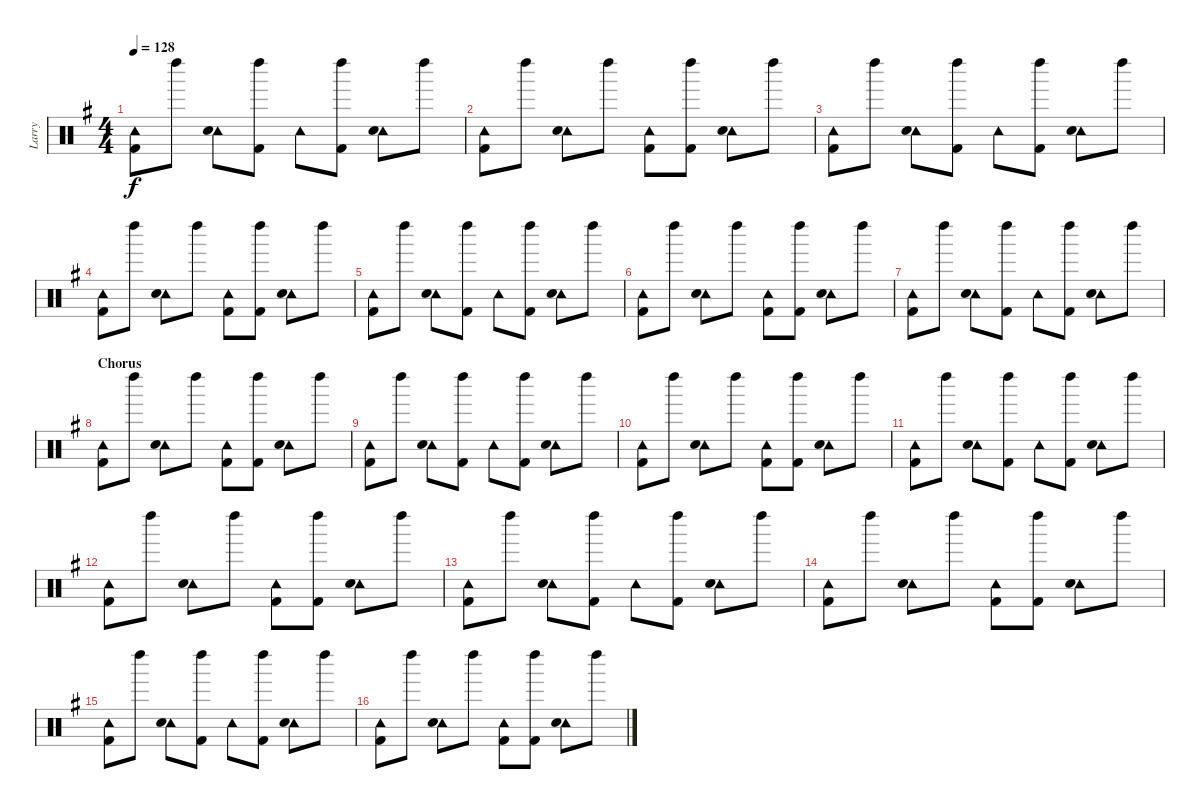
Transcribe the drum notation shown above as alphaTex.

\track ("Larry" "Larry") {instrument percussion}
\staff {score}
\articulation defaults
\ts (4 4)
\tempo 128
\clef neutral
\ks g
("Tambourine (hit)" "Kick (hit) 2").8{dy f} "Left Maraca (hit)".8 ("Tambourine (hit)" "Snare (hit) 2").8 ("Left Maraca (hit)" "Kick (hit) 2").8 "Tambourine (hit)".8 ("Left Maraca (hit)" "Kick (hit) 2").8 ("Tambourine (hit)" "Snare (hit) 2").8 "Left Maraca (hit)".8 |
("Tambourine (hit)" "Kick (hit) 2").8 "Left Maraca (hit)".8 ("Tambourine (hit)" "Snare (hit) 2").8 "Left Maraca (hit)".8 ("Tambourine (hit)" "Kick (hit) 2").8 ("Left Maraca (hit)" "Kick (hit) 2").8 ("Tambourine (hit)" "Snare (hit) 2").8 "Left Maraca (hit)".8 |
("Tambourine (hit)" "Kick (hit) 2").8 "Left Maraca (hit)".8 ("Tambourine (hit)" "Snare (hit) 2").8 ("Left Maraca (hit)" "Kick (hit) 2").8 "Tambourine (hit)".8 ("Left Maraca (hit)" "Kick (hit) 2").8 ("Tambourine (hit)" "Snare (hit) 2").8 "Left Maraca (hit)".8 |
("Tambourine (hit)" "Kick (hit) 2").8 "Left Maraca (hit)".8 ("Tambourine (hit)" "Snare (hit) 2").8 "Left Maraca (hit)".8 ("Tambourine (hit)" "Kick (hit) 2").8 ("Left Maraca (hit)" "Kick (hit) 2").8 ("Tambourine (hit)" "Snare (hit) 2").8 "Left Maraca (hit)".8 |
("Tambourine (hit)" "Kick (hit) 2").8 "Left Maraca (hit)".8 ("Tambourine (hit)" "Snare (hit) 2").8 ("Left Maraca (hit)" "Kick (hit) 2").8 "Tambourine (hit)".8 ("Left Maraca (hit)" "Kick (hit) 2").8 ("Tambourine (hit)" "Snare (hit) 2").8 "Left Maraca (hit)".8 |
("Tambourine (hit)" "Kick (hit) 2").8 "Left Maraca (hit)".8 ("Tambourine (hit)" "Snare (hit) 2").8 "Left Maraca (hit)".8 ("Tambourine (hit)" "Kick (hit) 2").8 ("Left Maraca (hit)" "Kick (hit) 2").8 ("Tambourine (hit)" "Snare (hit) 2").8 "Left Maraca (hit)".8 |
("Tambourine (hit)" "Kick (hit) 2").8 "Left Maraca (hit)".8 ("Tambourine (hit)" "Snare (hit) 2").8 ("Left Maraca (hit)" "Kick (hit) 2").8 "Tambourine (hit)".8 ("Left Maraca (hit)" "Kick (hit) 2").8 ("Tambourine (hit)" "Snare (hit) 2").8 "Left Maraca (hit)".8 |
\section ("" "Chorus")
("Tambourine (hit)" "Kick (hit) 2").8 "Left Maraca (hit)".8 ("Tambourine (hit)" "Snare (hit) 2").8 "Left Maraca (hit)".8 ("Tambourine (hit)" "Kick (hit) 2").8 ("Left Maraca (hit)" "Kick (hit) 2").8 ("Tambourine (hit)" "Snare (hit) 2").8 "Left Maraca (hit)".8 |
("Tambourine (hit)" "Kick (hit) 2").8 "Left Maraca (hit)".8 ("Tambourine (hit)" "Snare (hit) 2").8 ("Left Maraca (hit)" "Kick (hit) 2").8 "Tambourine (hit)".8 ("Left Maraca (hit)" "Kick (hit) 2").8 ("Tambourine (hit)" "Snare (hit) 2").8 "Left Maraca (hit)".8 |
("Tambourine (hit)" "Kick (hit) 2").8 "Left Maraca (hit)".8 ("Tambourine (hit)" "Snare (hit) 2").8 "Left Maraca (hit)".8 ("Tambourine (hit)" "Kick (hit) 2").8 ("Left Maraca (hit)" "Kick (hit) 2").8 ("Tambourine (hit)" "Snare (hit) 2").8 "Left Maraca (hit)".8 |
("Tambourine (hit)" "Kick (hit) 2").8 "Left Maraca (hit)".8 ("Tambourine (hit)" "Snare (hit) 2").8 ("Left Maraca (hit)" "Kick (hit) 2").8 "Tambourine (hit)".8 ("Left Maraca (hit)" "Kick (hit) 2").8 ("Tambourine (hit)" "Snare (hit) 2").8 "Left Maraca (hit)".8 |
("Tambourine (hit)" "Kick (hit) 2").8 "Left Maraca (hit)".8 ("Tambourine (hit)" "Snare (hit) 2").8 "Left Maraca (hit)".8 ("Tambourine (hit)" "Kick (hit) 2").8 ("Left Maraca (hit)" "Kick (hit) 2").8 ("Tambourine (hit)" "Snare (hit) 2").8 "Left Maraca (hit)".8 |
("Tambourine (hit)" "Kick (hit) 2").8 "Left Maraca (hit)".8 ("Tambourine (hit)" "Snare (hit) 2").8 ("Left Maraca (hit)" "Kick (hit) 2").8 "Tambourine (hit)".8 ("Left Maraca (hit)" "Kick (hit) 2").8 ("Tambourine (hit)" "Snare (hit) 2").8 "Left Maraca (hit)".8 |
("Tambourine (hit)" "Kick (hit) 2").8 "Left Maraca (hit)".8 ("Tambourine (hit)" "Snare (hit) 2").8 "Left Maraca (hit)".8 ("Tambourine (hit)" "Kick (hit) 2").8 ("Left Maraca (hit)" "Kick (hit) 2").8 ("Tambourine (hit)" "Snare (hit) 2").8 "Left Maraca (hit)".8 |
("Tambourine (hit)" "Kick (hit) 2").8 "Left Maraca (hit)".8 ("Tambourine (hit)" "Snare (hit) 2").8 ("Left Maraca (hit)" "Kick (hit) 2").8 "Tambourine (hit)".8 ("Left Maraca (hit)" "Kick (hit) 2").8 ("Tambourine (hit)" "Snare (hit) 2").8 "Left Maraca (hit)".8 |
("Tambourine (hit)" "Kick (hit) 2").8 "Left Maraca (hit)".8 ("Tambourine (hit)" "Snare (hit) 2").8 "Left Maraca (hit)".8 ("Tambourine (hit)" "Kick (hit) 2").8 ("Left Maraca (hit)" "Kick (hit) 2").8 ("Tambourine (hit)" "Snare (hit) 2").8 "Left Maraca (hit)".8
